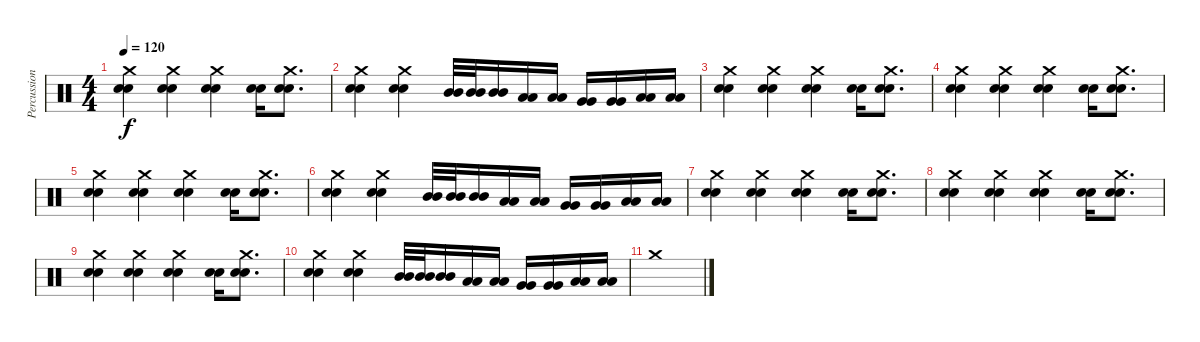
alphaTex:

\track ("Percussioni" "Percussion") {instrument percussion}
\staff
\articulation defaults
\ts (4 4)
\tempo 120
\clef neutral
\ks c
("Crash medium (hit)" "Electric Snare (hit)" "Snare (hit) 2").4{dy f} ("Crash medium (hit)" "Electric Snare (hit)" "Snare (hit) 2").4 ("Crash medium (hit)" "Electric Snare (hit)" "Snare (hit) 2").4 ("Electric Snare (hit)" "Snare (hit) 2").16 ("Crash medium (hit)" "Electric Snare (hit)" "Snare (hit) 2").8{d} |
("Crash medium (hit)" "Electric Snare (hit)" "Snare (hit) 2").4 ("Crash medium (hit)" "Electric Snare (hit)" "Snare (hit) 2").4 ("Mid Tom (hit)" "Mid Tom (hit)").32 ("Mid Tom (hit)" "Mid Tom (hit)").32 ("Mid Tom (hit)" "Mid Tom (hit)").16 ("Low Tom (hit)" "Low Tom (hit)").16 ("Low Tom (hit)" "Low Tom (hit)").16 ("Very Low Tom (hit)" "Very Low Tom (hit)").16 ("Very Low Tom (hit)" "Very Low Tom (hit)").16 ("Low Floor Tom (hit)" "Low Floor Tom (hit)").16 ("Low Floor Tom (hit)" "Low Floor Tom (hit)").16 |
("Crash medium (hit)" "Electric Snare (hit)" "Snare (hit) 2").4 ("Crash medium (hit)" "Electric Snare (hit)" "Snare (hit) 2").4 ("Crash medium (hit)" "Electric Snare (hit)" "Snare (hit) 2").4 ("Electric Snare (hit)" "Snare (hit) 2").16 ("Crash medium (hit)" "Electric Snare (hit)" "Snare (hit) 2").8{d} |
("Crash medium (hit)" "Electric Snare (hit)" "Snare (hit) 2").4 ("Crash medium (hit)" "Electric Snare (hit)" "Snare (hit) 2").4 ("Crash medium (hit)" "Electric Snare (hit)" "Snare (hit) 2").4 ("Electric Snare (hit)" "Snare (hit) 2").16 ("Crash medium (hit)" "Electric Snare (hit)" "Snare (hit) 2").8{d} |
("Crash medium (hit)" "Electric Snare (hit)" "Snare (hit) 2").4 ("Crash medium (hit)" "Electric Snare (hit)" "Snare (hit) 2").4 ("Crash medium (hit)" "Electric Snare (hit)" "Snare (hit) 2").4 ("Electric Snare (hit)" "Snare (hit) 2").16 ("Crash medium (hit)" "Electric Snare (hit)" "Snare (hit) 2").8{d} |
("Crash medium (hit)" "Electric Snare (hit)" "Snare (hit) 2").4 ("Crash medium (hit)" "Electric Snare (hit)" "Snare (hit) 2").4 ("Mid Tom (hit)" "Mid Tom (hit)").32 ("Mid Tom (hit)" "Mid Tom (hit)").32 ("Mid Tom (hit)" "Mid Tom (hit)").16 ("Low Tom (hit)" "Low Tom (hit)").16 ("Low Tom (hit)" "Low Tom (hit)").16 ("Very Low Tom (hit)" "Very Low Tom (hit)").16 ("Very Low Tom (hit)" "Very Low Tom (hit)").16 ("Low Floor Tom (hit)" "Low Floor Tom (hit)").16 ("Low Floor Tom (hit)" "Low Floor Tom (hit)").16 |
("Crash medium (hit)" "Electric Snare (hit)" "Snare (hit) 2").4 ("Crash medium (hit)" "Electric Snare (hit)" "Snare (hit) 2").4 ("Crash medium (hit)" "Electric Snare (hit)" "Snare (hit) 2").4 ("Electric Snare (hit)" "Snare (hit) 2").16 ("Crash medium (hit)" "Electric Snare (hit)" "Snare (hit) 2").8{d} |
("Crash medium (hit)" "Electric Snare (hit)" "Snare (hit) 2").4 ("Crash medium (hit)" "Electric Snare (hit)" "Snare (hit) 2").4 ("Crash medium (hit)" "Electric Snare (hit)" "Snare (hit) 2").4 ("Electric Snare (hit)" "Snare (hit) 2").16 ("Crash medium (hit)" "Electric Snare (hit)" "Snare (hit) 2").8{d} |
("Crash medium (hit)" "Electric Snare (hit)" "Snare (hit) 2").4 ("Crash medium (hit)" "Electric Snare (hit)" "Snare (hit) 2").4 ("Crash medium (hit)" "Electric Snare (hit)" "Snare (hit) 2").4 ("Electric Snare (hit)" "Snare (hit) 2").16 ("Crash medium (hit)" "Electric Snare (hit)" "Snare (hit) 2").8{d} |
("Crash medium (hit)" "Electric Snare (hit)" "Snare (hit) 2").4 ("Crash medium (hit)" "Electric Snare (hit)" "Snare (hit) 2").4 ("Mid Tom (hit)" "Mid Tom (hit)").32 ("Mid Tom (hit)" "Mid Tom (hit)").32 ("Mid Tom (hit)" "Mid Tom (hit)").16 ("Low Tom (hit)" "Low Tom (hit)").16 ("Low Tom (hit)" "Low Tom (hit)").16 ("Very Low Tom (hit)" "Very Low Tom (hit)").16 ("Very Low Tom (hit)" "Very Low Tom (hit)").16 ("Low Floor Tom (hit)" "Low Floor Tom (hit)").16 ("Low Floor Tom (hit)" "Low Floor Tom (hit)").16 |
"Crash medium (hit)".1
